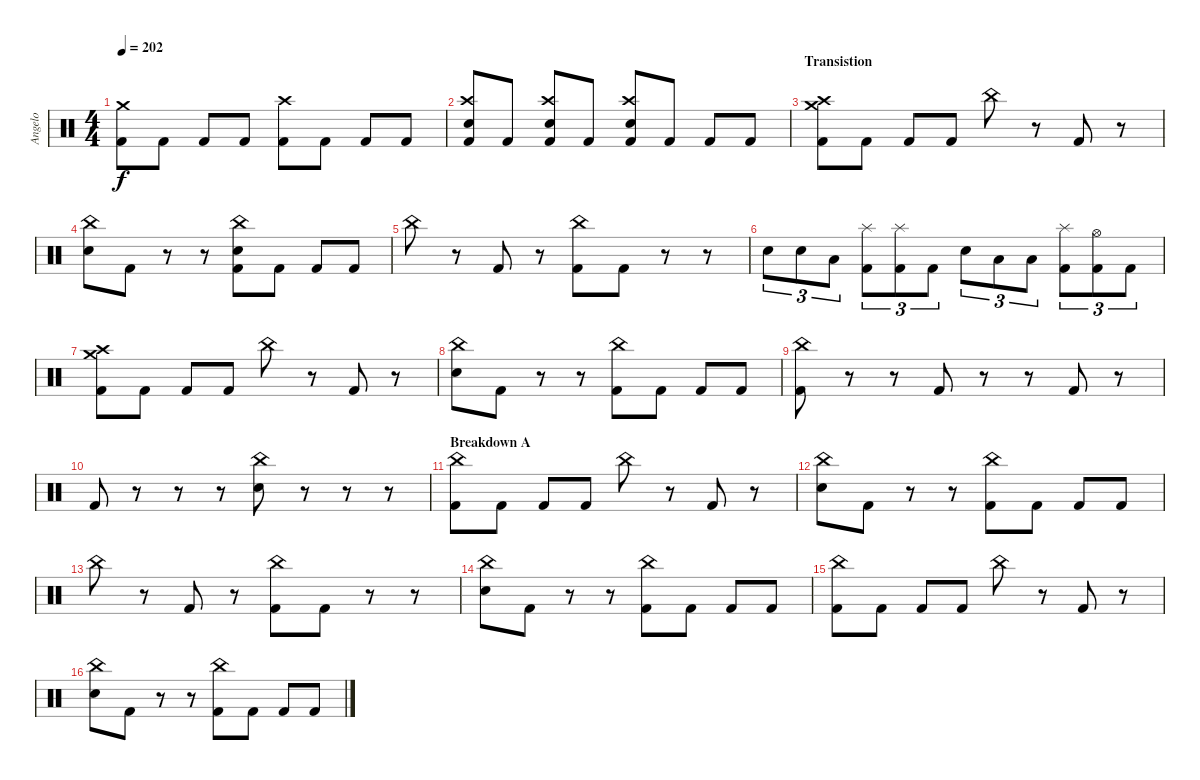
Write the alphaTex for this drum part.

\track ("Angelo" "Angelo") {instrument percussion}
\staff {score}
\articulation defaults
\ts (4 4)
\tempo 202
\clef neutral
\ks c
("Crash medium (hit)" "Kick (hit) 2").8{dy f} "Kick (hit) 2".8 "Kick (hit) 2".8 "Kick (hit) 2".8 ("Crash high (hit)" "Kick (hit) 2").8 "Kick (hit) 2".8 "Kick (hit) 2".8 "Kick (hit) 2".8 |
("Crash high (hit)" "Electric Snare (hit)" "Kick (hit) 2").8 "Kick (hit) 2".8 ("Crash high (hit)" "Electric Snare (hit)" "Kick (hit) 2").8 "Kick (hit) 2".8 ("Crash high (hit)" "Electric Snare (hit)" "Kick (hit) 2").8 "Kick (hit) 2".8 "Kick (hit) 2".8 "Kick (hit) 2".8 |
\section ("" "Transistion")
("Crash medium (hit)" "Crash high (hit)" "Kick (hit) 2").8 "Kick (hit) 2".8 "Kick (hit) 2".8 "Kick (hit) 2".8 "China (hit)".8 r.8 "Kick (hit) 2".8 r.8 |
("China (hit)" "Electric Snare (hit)").8 "Kick (hit) 2".8 r.8 r.8 ("China (hit)" "Electric Snare (hit)" "Kick (hit) 2").8 "Kick (hit) 2".8 "Kick (hit) 2".8 "Kick (hit) 2".8 |
"China (hit)".8 r.8 "Kick (hit) 2".8 r.8 ("China (hit)" "Kick (hit) 2").8 "Kick (hit) 2".8 r.8 r.8 |
"Electric Snare (hit)".8{tu (3 2)} "Electric Snare (hit)".8{tu (3 2)} "Low Floor Tom (hit)".8{tu (3 2)} ("Splash (hit)" "Kick (hit) 2").8{tu (3 2)} ("Splash (hit)" "Kick (hit) 2").8{tu (3 2)} "Kick (hit) 2".8{tu (3 2)} "Electric Snare (hit)".8{tu (3 2)} "Low Tom (hit)".8{tu (3 2)} "Low Floor Tom (hit)".8{tu (3 2)} ("Splash (hit)" "Kick (hit) 2").8{tu (3 2)} ("Hi-Hat (open)" "Kick (hit) 2").8{tu (3 2)} "Kick (hit) 2".8{tu (3 2)} |
("Crash medium (hit)" "Crash high (hit)" "Kick (hit) 2").8 "Kick (hit) 2".8 "Kick (hit) 2".8 "Kick (hit) 2".8 "China (hit)".8 r.8 "Kick (hit) 2".8 r.8 |
("China (hit)" "Electric Snare (hit)").8 "Kick (hit) 2".8 r.8 r.8 ("China (hit)" "Kick (hit) 2").8 "Kick (hit) 2".8 "Kick (hit) 2".8 "Kick (hit) 2".8 |
("China (hit)" "Kick (hit) 2").8 r.8 r.8 "Kick (hit) 2".8 r.8 r.8 "Kick (hit) 2".8 r.8 |
"Kick (hit) 2".8 r.8 r.8 r.8 ("China (hit)" "Electric Snare (hit)").8 r.8 r.8 r.8 |
\section ("" "Breakdown A")
("China (hit)" "Kick (hit) 2").8 "Kick (hit) 2".8 "Kick (hit) 2".8 "Kick (hit) 2".8 "China (hit)".8 r.8 "Kick (hit) 2".8 r.8 |
("China (hit)" "Electric Snare (hit)").8 "Kick (hit) 2".8 r.8 r.8 ("China (hit)" "Kick (hit) 2").8 "Kick (hit) 2".8 "Kick (hit) 2".8 "Kick (hit) 2".8 |
"China (hit)".8 r.8 "Kick (hit) 2".8 r.8 ("China (hit)" "Kick (hit) 2").8 "Kick (hit) 2".8 r.8 r.8 |
("China (hit)" "Electric Snare (hit)").8 "Kick (hit) 2".8 r.8 r.8 ("China (hit)" "Kick (hit) 2").8 "Kick (hit) 2".8 "Kick (hit) 2".8 "Kick (hit) 2".8 |
("China (hit)" "Kick (hit) 2").8 "Kick (hit) 2".8 "Kick (hit) 2".8 "Kick (hit) 2".8 "China (hit)".8 r.8 "Kick (hit) 2".8 r.8 |
("China (hit)" "Electric Snare (hit)").8 "Kick (hit) 2".8 r.8 r.8 ("China (hit)" "Kick (hit) 2").8 "Kick (hit) 2".8 "Kick (hit) 2".8 "Kick (hit) 2".8
